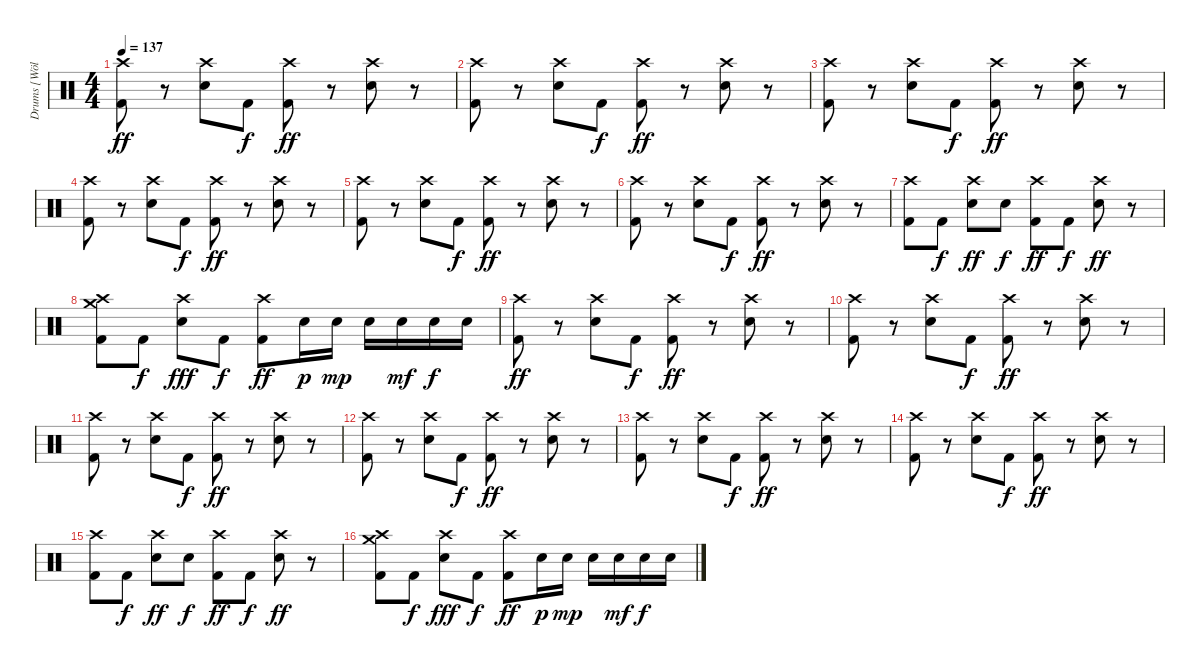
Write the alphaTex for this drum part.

\track ("Drums [Wölli]" "Drums [Wöl") {instrument percussion}
\staff {score}
\articulation defaults
\ts (4 4)
\tempo 137
\clef neutral
\ks c
("Crash high (hit)" "Kick (hit) 2").8{dy ff} r.8 ("Crash high (hit)" "Snare (hit) 2").8 "Kick (hit) 2".8{dy f} ("Crash high (hit)" "Kick (hit) 2").8{dy ff} r.8 ("Crash high (hit)" "Snare (hit) 2").8 r.8 |
("Crash high (hit)" "Kick (hit) 2").8 r.8 ("Crash high (hit)" "Snare (hit) 2").8 "Kick (hit) 2".8{dy f} ("Crash high (hit)" "Kick (hit) 2").8{dy ff} r.8 ("Crash high (hit)" "Snare (hit) 2").8 r.8 |
("Crash high (hit)" "Kick (hit) 2").8 r.8 ("Crash high (hit)" "Snare (hit) 2").8 "Kick (hit) 2".8{dy f} ("Crash high (hit)" "Kick (hit) 2").8{dy ff} r.8 ("Crash high (hit)" "Snare (hit) 2").8 r.8 |
("Crash high (hit)" "Kick (hit) 2").8 r.8 ("Crash high (hit)" "Snare (hit) 2").8 "Kick (hit) 2".8{dy f} ("Crash high (hit)" "Kick (hit) 2").8{dy ff} r.8 ("Crash high (hit)" "Snare (hit) 2").8 r.8 |
("Crash high (hit)" "Kick (hit) 2").8 r.8 ("Crash high (hit)" "Snare (hit) 2").8 "Kick (hit) 2".8{dy f} ("Crash high (hit)" "Kick (hit) 2").8{dy ff} r.8 ("Crash high (hit)" "Snare (hit) 2").8 r.8 |
("Crash high (hit)" "Kick (hit) 2").8 r.8 ("Crash high (hit)" "Snare (hit) 2").8 "Kick (hit) 2".8{dy f} ("Crash high (hit)" "Kick (hit) 2").8{dy ff} r.8 ("Crash high (hit)" "Snare (hit) 2").8 r.8 |
("Crash high (hit)" "Kick (hit) 2").8 "Kick (hit) 2".8{dy f} ("Crash high (hit)" "Snare (hit) 2").8{dy ff} "Snare (hit) 2".8{dy f} ("Crash high (hit)" "Kick (hit) 2").8{dy ff} "Kick (hit) 2".8{dy f} ("Crash high (hit)" "Snare (hit) 2").8{dy ff} r.8 |
("Crash high (hit)" "Kick (hit) 2" "Crash medium (hit)").8 "Kick (hit) 2".8{dy f} ("Crash high (hit)" "Snare (hit) 2").8{dy fff} "Kick (hit) 2".8{dy f} ("Crash high (hit)" "Kick (hit) 2").8{dy ff} "Snare (hit) 2".16{dy p} "Snare (hit) 2".16{dy mp} "Snare (hit) 2".16 "Snare (hit) 2".16{dy mf} "Snare (hit) 2".16{dy f} "Snare (hit) 2".16 |
("Crash high (hit)" "Kick (hit) 2").8{dy ff} r.8 ("Crash high (hit)" "Snare (hit) 2").8 "Kick (hit) 2".8{dy f} ("Crash high (hit)" "Kick (hit) 2").8{dy ff} r.8 ("Crash high (hit)" "Snare (hit) 2").8 r.8 |
("Crash high (hit)" "Kick (hit) 2").8 r.8 ("Crash high (hit)" "Snare (hit) 2").8 "Kick (hit) 2".8{dy f} ("Crash high (hit)" "Kick (hit) 2").8{dy ff} r.8 ("Crash high (hit)" "Snare (hit) 2").8 r.8 |
("Crash high (hit)" "Kick (hit) 2").8 r.8 ("Crash high (hit)" "Snare (hit) 2").8 "Kick (hit) 2".8{dy f} ("Crash high (hit)" "Kick (hit) 2").8{dy ff} r.8 ("Crash high (hit)" "Snare (hit) 2").8 r.8 |
("Crash high (hit)" "Kick (hit) 2").8 r.8 ("Crash high (hit)" "Snare (hit) 2").8 "Kick (hit) 2".8{dy f} ("Crash high (hit)" "Kick (hit) 2").8{dy ff} r.8 ("Crash high (hit)" "Snare (hit) 2").8 r.8 |
("Crash high (hit)" "Kick (hit) 2").8 r.8 ("Crash high (hit)" "Snare (hit) 2").8 "Kick (hit) 2".8{dy f} ("Crash high (hit)" "Kick (hit) 2").8{dy ff} r.8 ("Crash high (hit)" "Snare (hit) 2").8 r.8 |
("Crash high (hit)" "Kick (hit) 2").8 r.8 ("Crash high (hit)" "Snare (hit) 2").8 "Kick (hit) 2".8{dy f} ("Crash high (hit)" "Kick (hit) 2").8{dy ff} r.8 ("Crash high (hit)" "Snare (hit) 2").8 r.8 |
("Crash high (hit)" "Kick (hit) 2").8 "Kick (hit) 2".8{dy f} ("Crash high (hit)" "Snare (hit) 2").8{dy ff} "Snare (hit) 2".8{dy f} ("Crash high (hit)" "Kick (hit) 2").8{dy ff} "Kick (hit) 2".8{dy f} ("Crash high (hit)" "Snare (hit) 2").8{dy ff} r.8 |
("Crash high (hit)" "Kick (hit) 2" "Crash medium (hit)").8 "Kick (hit) 2".8{dy f} ("Crash high (hit)" "Snare (hit) 2").8{dy fff} "Kick (hit) 2".8{dy f} ("Crash high (hit)" "Kick (hit) 2").8{dy ff} "Snare (hit) 2".16{dy p} "Snare (hit) 2".16{dy mp} "Snare (hit) 2".16 "Snare (hit) 2".16{dy mf} "Snare (hit) 2".16{dy f} "Snare (hit) 2".16
